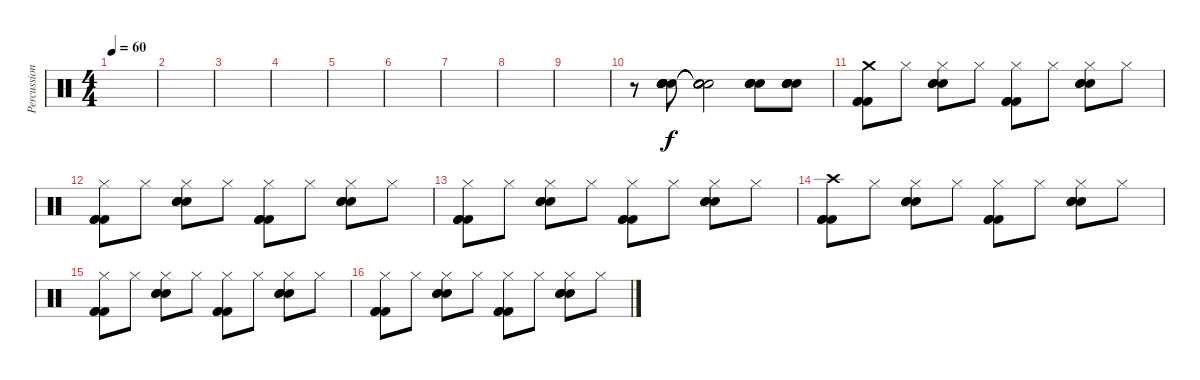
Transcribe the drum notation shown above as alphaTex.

\track ("Percussion (Nigel Olsson)" "Percussion") {instrument percussion}
\staff {score}
\articulation defaults
\ts (4 4)
\tempo 60
\clef neutral
\ks c
|
|
|
|
|
|
|
|
|
r.8 ("Electric Snare (hit)" "Electric Snare (hit)" "Electric Snare (hit)" "Electric Snare (hit)" "Electric Snare (hit)" "Electric Snare (hit)").8 ("Snare (hit)"{t} "Snare (hit)"{t} "Snare (hit)"{t} "Snare (hit)"{t} "Snare (hit)"{t} "Snare (hit)"{t}).2 ("Electric Snare (hit)" "Electric Snare (hit)" "Electric Snare (hit)" "Electric Snare (hit)").8 ("Electric Snare (hit)" "Electric Snare (hit)" "Electric Snare (hit)" "Electric Snare (hit)").8 |
("Crash medium (hit)" "Kick (hit) 2" "Kick (hit) 2" "Kick (hit) 2").8 "Hi-Hat (closed)".8 ("Hi-Hat (closed)" "Electric Snare (hit)" "Electric Snare (hit)" "Electric Snare (hit)").8 "Hi-Hat (closed)".8 ("Hi-Hat (closed)" "Kick (hit) 2" "Kick (hit) 2" "Kick (hit) 2").8 "Hi-Hat (closed)".8 ("Hi-Hat (closed)" "Electric Snare (hit)" "Electric Snare (hit)" "Electric Snare (hit)").8 "Hi-Hat (closed)".8 |
("Hi-Hat (closed)" "Kick (hit) 2" "Kick (hit) 2" "Kick (hit) 2").8 "Hi-Hat (closed)".8 ("Hi-Hat (closed)" "Electric Snare (hit)" "Electric Snare (hit)" "Electric Snare (hit)").8 "Hi-Hat (closed)".8 ("Hi-Hat (closed)" "Kick (hit) 2" "Kick (hit) 2" "Kick (hit) 2").8 "Hi-Hat (closed)".8 ("Hi-Hat (closed)" "Electric Snare (hit)" "Electric Snare (hit)" "Electric Snare (hit)").8 "Hi-Hat (closed)".8 |
("Hi-Hat (closed)" "Kick (hit) 2" "Kick (hit) 2" "Kick (hit) 2").8 "Hi-Hat (closed)".8 ("Hi-Hat (closed)" "Electric Snare (hit)" "Electric Snare (hit)" "Electric Snare (hit)").8 "Hi-Hat (closed)".8 ("Hi-Hat (closed)" "Kick (hit) 2" "Kick (hit) 2" "Kick (hit) 2").8 "Hi-Hat (closed)".8 ("Hi-Hat (closed)" "Electric Snare (hit)" "Electric Snare (hit)" "Electric Snare (hit)").8 "Hi-Hat (closed)".8 |
("Crash high (hit)" "Kick (hit) 2" "Kick (hit) 2" "Kick (hit) 2").8 "Hi-Hat (closed)".8 ("Hi-Hat (closed)" "Electric Snare (hit)" "Electric Snare (hit)" "Electric Snare (hit)").8 "Hi-Hat (closed)".8 ("Hi-Hat (closed)" "Kick (hit) 2" "Kick (hit) 2" "Kick (hit) 2").8 "Hi-Hat (closed)".8 ("Hi-Hat (closed)" "Electric Snare (hit)" "Electric Snare (hit)" "Electric Snare (hit)").8 "Hi-Hat (closed)".8 |
("Hi-Hat (closed)" "Kick (hit) 2" "Kick (hit) 2" "Kick (hit) 2").8 "Hi-Hat (closed)".8 ("Hi-Hat (closed)" "Electric Snare (hit)" "Electric Snare (hit)" "Electric Snare (hit)").8 "Hi-Hat (closed)".8 ("Hi-Hat (closed)" "Kick (hit) 2" "Kick (hit) 2" "Kick (hit) 2").8 "Hi-Hat (closed)".8 ("Hi-Hat (closed)" "Electric Snare (hit)" "Electric Snare (hit)" "Electric Snare (hit)").8 "Hi-Hat (closed)".8 |
("Hi-Hat (closed)" "Kick (hit) 2" "Kick (hit) 2" "Kick (hit) 2").8 "Hi-Hat (closed)".8 ("Hi-Hat (closed)" "Electric Snare (hit)" "Electric Snare (hit)" "Electric Snare (hit)").8 "Hi-Hat (closed)".8 ("Hi-Hat (closed)" "Kick (hit) 2" "Kick (hit) 2" "Kick (hit) 2").8 "Hi-Hat (closed)".8 ("Hi-Hat (closed)" "Electric Snare (hit)" "Electric Snare (hit)" "Electric Snare (hit)").8 "Hi-Hat (closed)".8
